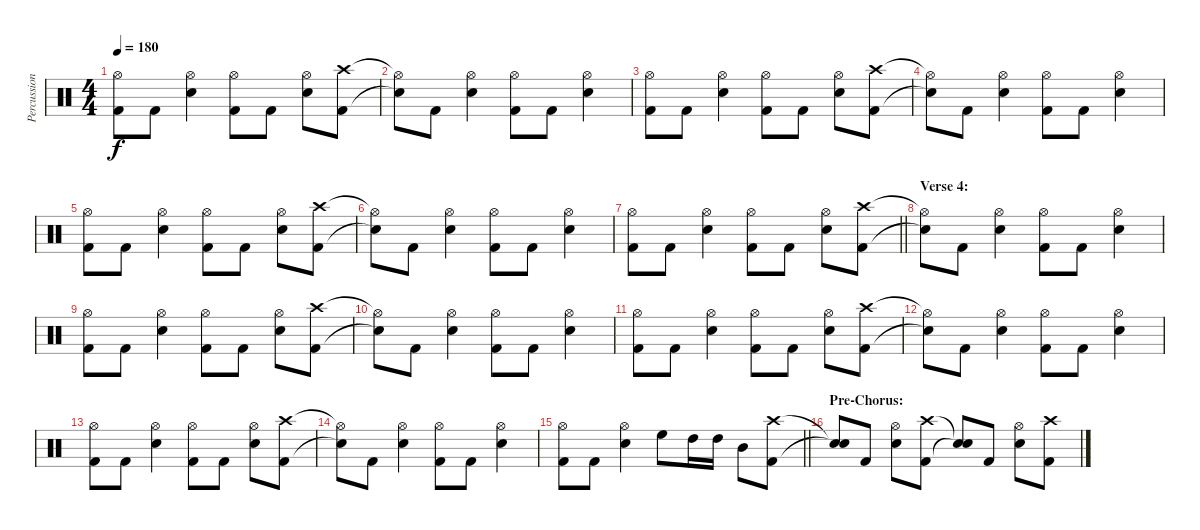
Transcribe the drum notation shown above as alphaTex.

\track ("Percussion" "Percussion") {instrument percussion}
\staff {score}
\articulation defaults
\ts (4 4)
\tempo 180
\clef neutral
\ks c
("Hi-Hat (open)" "Kick (hit) 2").8{dy f} "Kick (hit) 2".8 ("Hi-Hat (open)" "Electric Snare (hit)").4 ("Hi-Hat (open)" "Kick (hit) 2").8 "Kick (hit) 2".8 ("Hi-Hat (open)" "Electric Snare (hit)").8 ("Crash high (hit)" "Kick (hit) 2").8 |
("Hi-Hat (open)"{t} "Snare (hit)"{t}).8 "Kick (hit) 2".8 ("Hi-Hat (open)" "Electric Snare (hit)").4 ("Hi-Hat (open)" "Kick (hit) 2").8 "Kick (hit) 2".8 ("Hi-Hat (open)" "Electric Snare (hit)").4 |
("Hi-Hat (open)" "Kick (hit) 2").8 "Kick (hit) 2".8 ("Hi-Hat (open)" "Electric Snare (hit)").4 ("Hi-Hat (open)" "Kick (hit) 2").8 "Kick (hit) 2".8 ("Hi-Hat (open)" "Electric Snare (hit)").8 ("Crash high (hit)" "Kick (hit) 2").8 |
("Hi-Hat (open)"{t} "Snare (hit)"{t}).8 "Kick (hit) 2".8 ("Hi-Hat (open)" "Electric Snare (hit)").4 ("Hi-Hat (open)" "Kick (hit) 2").8 "Kick (hit) 2".8 ("Hi-Hat (open)" "Electric Snare (hit)").4 |
("Hi-Hat (open)" "Kick (hit) 2").8 "Kick (hit) 2".8 ("Hi-Hat (open)" "Electric Snare (hit)").4 ("Hi-Hat (open)" "Kick (hit) 2").8 "Kick (hit) 2".8 ("Hi-Hat (open)" "Electric Snare (hit)").8 ("Crash high (hit)" "Kick (hit) 2").8 |
("Hi-Hat (open)"{t} "Snare (hit)"{t}).8 "Kick (hit) 2".8 ("Hi-Hat (open)" "Electric Snare (hit)").4 ("Hi-Hat (open)" "Kick (hit) 2").8 "Kick (hit) 2".8 ("Hi-Hat (open)" "Electric Snare (hit)").4 |
\barLineRight lightlight
("Hi-Hat (open)" "Kick (hit) 2").8 "Kick (hit) 2".8 ("Hi-Hat (open)" "Electric Snare (hit)").4 ("Hi-Hat (open)" "Kick (hit) 2").8 "Kick (hit) 2".8 ("Hi-Hat (open)" "Electric Snare (hit)").8 ("Crash high (hit)" "Kick (hit) 2").8 |
\section ("" "Verse 4:")
("Hi-Hat (open)"{t} "Snare (hit)"{t}).8 "Kick (hit) 2".8 ("Hi-Hat (open)" "Electric Snare (hit)").4 ("Hi-Hat (open)" "Kick (hit) 2").8 "Kick (hit) 2".8 ("Hi-Hat (open)" "Electric Snare (hit)").4 |
("Hi-Hat (open)" "Kick (hit) 2").8 "Kick (hit) 2".8 ("Hi-Hat (open)" "Electric Snare (hit)").4 ("Hi-Hat (open)" "Kick (hit) 2").8 "Kick (hit) 2".8 ("Hi-Hat (open)" "Electric Snare (hit)").8 ("Crash high (hit)" "Kick (hit) 2").8 |
("Hi-Hat (open)"{t} "Snare (hit)"{t}).8 "Kick (hit) 2".8 ("Hi-Hat (open)" "Electric Snare (hit)").4 ("Hi-Hat (open)" "Kick (hit) 2").8 "Kick (hit) 2".8 ("Hi-Hat (open)" "Electric Snare (hit)").4 |
("Hi-Hat (open)" "Kick (hit) 2").8 "Kick (hit) 2".8 ("Hi-Hat (open)" "Electric Snare (hit)").4 ("Hi-Hat (open)" "Kick (hit) 2").8 "Kick (hit) 2".8 ("Hi-Hat (open)" "Electric Snare (hit)").8 ("Crash high (hit)" "Kick (hit) 2").8 |
("Hi-Hat (open)"{t} "Snare (hit)"{t}).8 "Kick (hit) 2".8 ("Hi-Hat (open)" "Electric Snare (hit)").4 ("Hi-Hat (open)" "Kick (hit) 2").8 "Kick (hit) 2".8 ("Hi-Hat (open)" "Electric Snare (hit)").4 |
("Hi-Hat (open)" "Kick (hit) 2").8 "Kick (hit) 2".8 ("Hi-Hat (open)" "Electric Snare (hit)").4 ("Hi-Hat (open)" "Kick (hit) 2").8 "Kick (hit) 2".8 ("Hi-Hat (open)" "Electric Snare (hit)").8 ("Crash high (hit)" "Kick (hit) 2").8 |
("Hi-Hat (open)"{t} "Snare (hit)"{t}).8 "Kick (hit) 2".8 ("Hi-Hat (open)" "Electric Snare (hit)").4 ("Hi-Hat (open)" "Kick (hit) 2").8 "Kick (hit) 2".8 ("Hi-Hat (open)" "Electric Snare (hit)").4 |
\barLineRight lightlight
("Hi-Hat (open)" "Kick (hit) 2").8 "Kick (hit) 2".8 ("Hi-Hat (open)" "Electric Snare (hit)").4 "High Floor Tom (hit)".8 "High Tom (hit)".16 "High Tom (hit)".16 "Mid Tom (hit)".8 ("Crash high (hit)" "Kick (hit) 2").8 |
\section ("" "Pre-Chorus:")
("Snare (hit)"{t} "Snare (hit)"{t}).8 "Kick (hit) 2".8 ("Hi-Hat (open)" "Electric Snare (hit)").8 ("Crash high (hit)" "Kick (hit) 2").8 ("Snare (hit)"{t} "Snare (hit)"{t}).8 "Kick (hit) 2".8 ("Hi-Hat (open)" "Electric Snare (hit)").8 ("Crash high (hit)" "Kick (hit) 2").8
